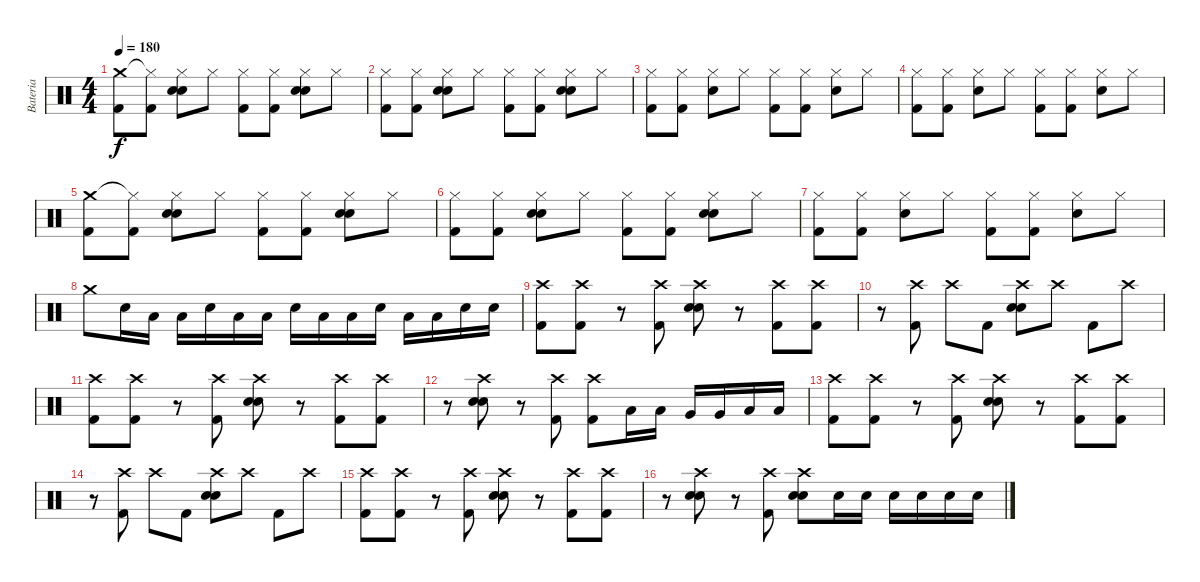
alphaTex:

\track ("Bateria" "Bateria") {instrument percussion}
\staff {score}
\articulation defaults
\ts (4 4)
\tempo 180
\clef neutral
\ks c
("Crash medium (hit)" "Kick (hit) 2").8{dy f} ("Hi-Hat (closed)"{t} "Kick (hit) 2").8 ("Hi-Hat (closed)" "Snare (hit) 2" "Electric Snare (hit)").8 "Hi-Hat (closed)".8 ("Hi-Hat (closed)" "Kick (hit) 2").8 ("Hi-Hat (closed)" "Kick (hit) 2").8 ("Hi-Hat (closed)" "Snare (hit) 2" "Electric Snare (hit)").8 "Hi-Hat (closed)".8 |
("Hi-Hat (closed)" "Kick (hit) 2").8 ("Hi-Hat (closed)" "Kick (hit) 2").8 ("Hi-Hat (closed)" "Snare (hit) 2" "Electric Snare (hit)").8 "Hi-Hat (closed)".8 ("Hi-Hat (closed)" "Kick (hit) 2").8 ("Hi-Hat (closed)" "Kick (hit) 2").8 ("Hi-Hat (closed)" "Snare (hit) 2" "Electric Snare (hit)").8 "Hi-Hat (closed)".8 |
("Hi-Hat (closed)" "Kick (hit) 2").8 ("Hi-Hat (closed)" "Kick (hit) 2").8 ("Hi-Hat (closed)" "Electric Snare (hit)").8 "Hi-Hat (closed)".8 ("Hi-Hat (closed)" "Kick (hit) 2").8 ("Hi-Hat (closed)" "Kick (hit) 2").8 ("Hi-Hat (closed)" "Electric Snare (hit)").8 "Hi-Hat (closed)".8 |
("Hi-Hat (closed)" "Kick (hit) 2").8 ("Hi-Hat (closed)" "Kick (hit) 2").8 ("Hi-Hat (closed)" "Electric Snare (hit)").8 "Hi-Hat (closed)".8 ("Hi-Hat (closed)" "Kick (hit) 2").8 ("Hi-Hat (closed)" "Kick (hit) 2").8 ("Hi-Hat (closed)" "Electric Snare (hit)").8 "Hi-Hat (closed)".8 |
("Crash medium (hit)" "Kick (hit) 2").8 ("Hi-Hat (closed)"{t} "Kick (hit) 2").8 ("Hi-Hat (closed)" "Snare (hit) 2" "Electric Snare (hit)").8 "Hi-Hat (closed)".8 ("Hi-Hat (closed)" "Kick (hit) 2").8 ("Hi-Hat (closed)" "Kick (hit) 2").8 ("Hi-Hat (closed)" "Snare (hit) 2" "Electric Snare (hit)").8 "Hi-Hat (closed)".8 |
("Hi-Hat (closed)" "Kick (hit) 2").8 ("Hi-Hat (closed)" "Kick (hit) 2").8 ("Hi-Hat (closed)" "Snare (hit) 2" "Electric Snare (hit)").8 "Hi-Hat (closed)".8 ("Hi-Hat (closed)" "Kick (hit) 2").8 ("Hi-Hat (closed)" "Kick (hit) 2").8 ("Hi-Hat (closed)" "Snare (hit) 2" "Electric Snare (hit)").8 "Hi-Hat (closed)".8 |
("Hi-Hat (closed)" "Kick (hit) 2").8 ("Hi-Hat (closed)" "Kick (hit) 2").8 ("Hi-Hat (closed)" "Electric Snare (hit)").8 "Hi-Hat (closed)".8 ("Hi-Hat (closed)" "Kick (hit) 2").8 ("Hi-Hat (closed)" "Kick (hit) 2").8 ("Hi-Hat (closed)" "Electric Snare (hit)").8 "Hi-Hat (closed)".8 |
"Crash medium (hit)".8 "Electric Snare (hit)".16 "Low Tom (hit)".16 "Low Tom (hit)".16 "Electric Snare (hit)".16 "Low Tom (hit)".16 "Low Tom (hit)".16 "Electric Snare (hit)".16 "Low Tom (hit)".16 "Low Tom (hit)".16 "Electric Snare (hit)".16 "Low Tom (hit)".16 "Low Tom (hit)".16 "Electric Snare (hit)".16 "Electric Snare (hit)".16 |
("Crash high (hit)" "Kick (hit) 2").8 ("Crash high (hit)" "Kick (hit) 2").8 r.8 ("Crash high (hit)" "Kick (hit) 2").8 ("Crash high (hit)" "Snare (hit) 2" "Electric Snare (hit)").8 r.8 ("Crash high (hit)" "Kick (hit) 2").8 ("Crash high (hit)" "Kick (hit) 2").8 |
r.8 ("Crash high (hit)" "Kick (hit) 2").8 "Crash high (hit)".8 "Kick (hit) 2".8 ("Crash high (hit)" "Snare (hit) 2" "Electric Snare (hit)").8 "Crash high (hit)".8 "Kick (hit) 2".8 "Crash high (hit)".8 |
("Crash high (hit)" "Kick (hit) 2").8 ("Crash high (hit)" "Kick (hit) 2").8 r.8 ("Crash high (hit)" "Kick (hit) 2").8 ("Crash high (hit)" "Snare (hit) 2" "Electric Snare (hit)").8 r.8 ("Crash high (hit)" "Kick (hit) 2").8 ("Crash high (hit)" "Kick (hit) 2").8 |
r.8 ("Crash high (hit)" "Electric Snare (hit)" "Snare (hit) 2").8 r.8 ("Crash high (hit)" "Kick (hit) 2").8 ("Crash high (hit)" "Kick (hit) 2").8 "Low Tom (hit)".16 "Low Tom (hit)".16 "Very Low Tom (hit)".16 "Very Low Tom (hit)".16 "Low Floor Tom (hit)".16 "Low Floor Tom (hit)".16 |
("Crash high (hit)" "Kick (hit) 2").8 ("Crash high (hit)" "Kick (hit) 2").8 r.8 ("Crash high (hit)" "Kick (hit) 2").8 ("Crash high (hit)" "Snare (hit) 2" "Electric Snare (hit)").8 r.8 ("Crash high (hit)" "Kick (hit) 2").8 ("Crash high (hit)" "Kick (hit) 2").8 |
r.8 ("Crash high (hit)" "Kick (hit) 2").8 "Crash high (hit)".8 "Kick (hit) 2".8 ("Crash high (hit)" "Snare (hit) 2" "Electric Snare (hit)").8 "Crash high (hit)".8 "Kick (hit) 2".8 "Crash high (hit)".8 |
("Crash high (hit)" "Kick (hit) 2").8 ("Crash high (hit)" "Kick (hit) 2").8 r.8 ("Crash high (hit)" "Kick (hit) 2").8 ("Crash high (hit)" "Snare (hit) 2" "Electric Snare (hit)").8 r.8 ("Crash high (hit)" "Kick (hit) 2").8 ("Crash high (hit)" "Kick (hit) 2").8 |
r.8 ("Crash high (hit)" "Snare (hit) 2" "Electric Snare (hit)").8 r.8 ("Crash high (hit)" "Kick (hit) 2").8 ("Crash high (hit)" "Snare (hit) 2" "Electric Snare (hit)").8 "Electric Snare (hit)".16 "Electric Snare (hit)".16 "Electric Snare (hit)".16 "Electric Snare (hit)".16 "Electric Snare (hit)".16 "Electric Snare (hit)".16
